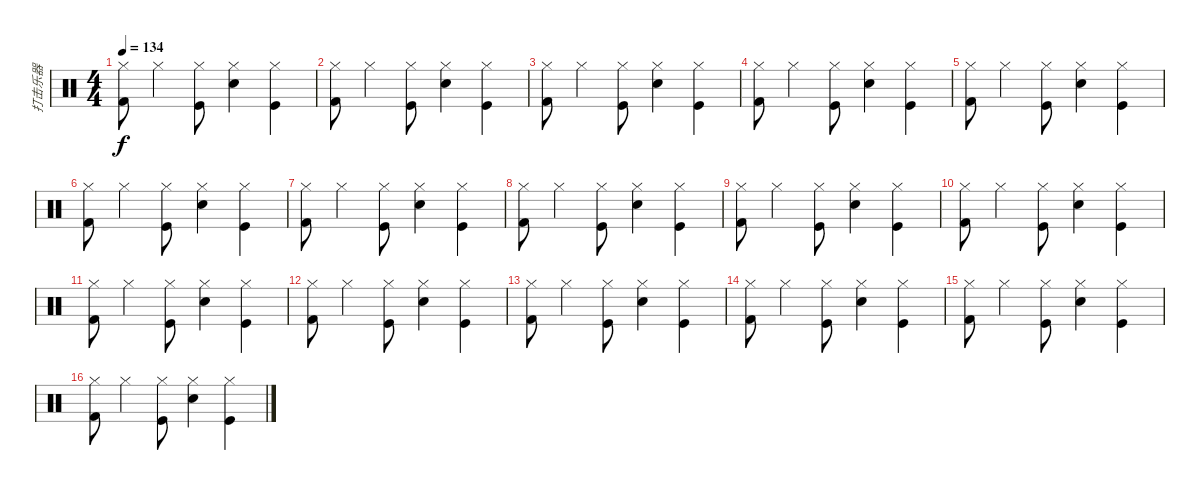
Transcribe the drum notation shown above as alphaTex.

\track ("打击乐器" "打击乐器") {instrument percussion}
\staff {score}
\articulation defaults
\ts (4 4)
\tempo 134
\clef neutral
\ks c
("Kick (hit) 2" "Hi-Hat (closed)").8{dy f} "Hi-Hat (closed)".4 ("Hi-Hat (closed)" "Kick (hit)").8 ("Snare (hit) 2" "Hi-Hat (closed)").4 ("Kick (hit)" "Hi-Hat (closed)").4 |
("Kick (hit) 2" "Hi-Hat (closed)").8 "Hi-Hat (closed)".4 ("Hi-Hat (closed)" "Kick (hit)").8 ("Snare (hit) 2" "Hi-Hat (closed)").4 ("Kick (hit)" "Hi-Hat (closed)").4 |
("Kick (hit) 2" "Hi-Hat (closed)").8 "Hi-Hat (closed)".4 ("Hi-Hat (closed)" "Kick (hit)").8 ("Snare (hit) 2" "Hi-Hat (closed)").4 ("Kick (hit)" "Hi-Hat (closed)").4 |
("Kick (hit) 2" "Hi-Hat (closed)").8 "Hi-Hat (closed)".4 ("Hi-Hat (closed)" "Kick (hit)").8 ("Snare (hit) 2" "Hi-Hat (closed)").4 ("Kick (hit)" "Hi-Hat (closed)").4 |
("Kick (hit) 2" "Hi-Hat (closed)").8 "Hi-Hat (closed)".4 ("Hi-Hat (closed)" "Kick (hit)").8 ("Snare (hit) 2" "Hi-Hat (closed)").4 ("Kick (hit)" "Hi-Hat (closed)").4 |
("Kick (hit) 2" "Hi-Hat (closed)").8 "Hi-Hat (closed)".4 ("Hi-Hat (closed)" "Kick (hit)").8 ("Snare (hit) 2" "Hi-Hat (closed)").4 ("Kick (hit)" "Hi-Hat (closed)").4 |
("Kick (hit) 2" "Hi-Hat (closed)").8 "Hi-Hat (closed)".4 ("Hi-Hat (closed)" "Kick (hit)").8 ("Snare (hit) 2" "Hi-Hat (closed)").4 ("Kick (hit)" "Hi-Hat (closed)").4 |
("Kick (hit) 2" "Hi-Hat (closed)").8 "Hi-Hat (closed)".4 ("Hi-Hat (closed)" "Kick (hit)").8 ("Snare (hit) 2" "Hi-Hat (closed)").4 ("Kick (hit)" "Hi-Hat (closed)").4 |
("Kick (hit) 2" "Hi-Hat (closed)").8 "Hi-Hat (closed)".4 ("Hi-Hat (closed)" "Kick (hit)").8 ("Snare (hit) 2" "Hi-Hat (closed)").4 ("Kick (hit)" "Hi-Hat (closed)").4 |
("Kick (hit) 2" "Hi-Hat (closed)").8 "Hi-Hat (closed)".4 ("Hi-Hat (closed)" "Kick (hit)").8 ("Snare (hit) 2" "Hi-Hat (closed)").4 ("Kick (hit)" "Hi-Hat (closed)").4 |
("Kick (hit) 2" "Hi-Hat (closed)").8 "Hi-Hat (closed)".4 ("Hi-Hat (closed)" "Kick (hit)").8 ("Snare (hit) 2" "Hi-Hat (closed)").4 ("Kick (hit)" "Hi-Hat (closed)").4 |
("Kick (hit) 2" "Hi-Hat (closed)").8 "Hi-Hat (closed)".4 ("Hi-Hat (closed)" "Kick (hit)").8 ("Snare (hit) 2" "Hi-Hat (closed)").4 ("Kick (hit)" "Hi-Hat (closed)").4 |
("Kick (hit) 2" "Hi-Hat (closed)").8 "Hi-Hat (closed)".4 ("Hi-Hat (closed)" "Kick (hit)").8 ("Snare (hit) 2" "Hi-Hat (closed)").4 ("Kick (hit)" "Hi-Hat (closed)").4 |
("Kick (hit) 2" "Hi-Hat (closed)").8 "Hi-Hat (closed)".4 ("Hi-Hat (closed)" "Kick (hit)").8 ("Snare (hit) 2" "Hi-Hat (closed)").4 ("Kick (hit)" "Hi-Hat (closed)").4 |
("Kick (hit) 2" "Hi-Hat (closed)").8 "Hi-Hat (closed)".4 ("Hi-Hat (closed)" "Kick (hit)").8 ("Snare (hit) 2" "Hi-Hat (closed)").4 ("Kick (hit)" "Hi-Hat (closed)").4 |
("Kick (hit) 2" "Hi-Hat (closed)").8 "Hi-Hat (closed)".4 ("Hi-Hat (closed)" "Kick (hit)").8 ("Snare (hit) 2" "Hi-Hat (closed)").4 ("Kick (hit)" "Hi-Hat (closed)").4
